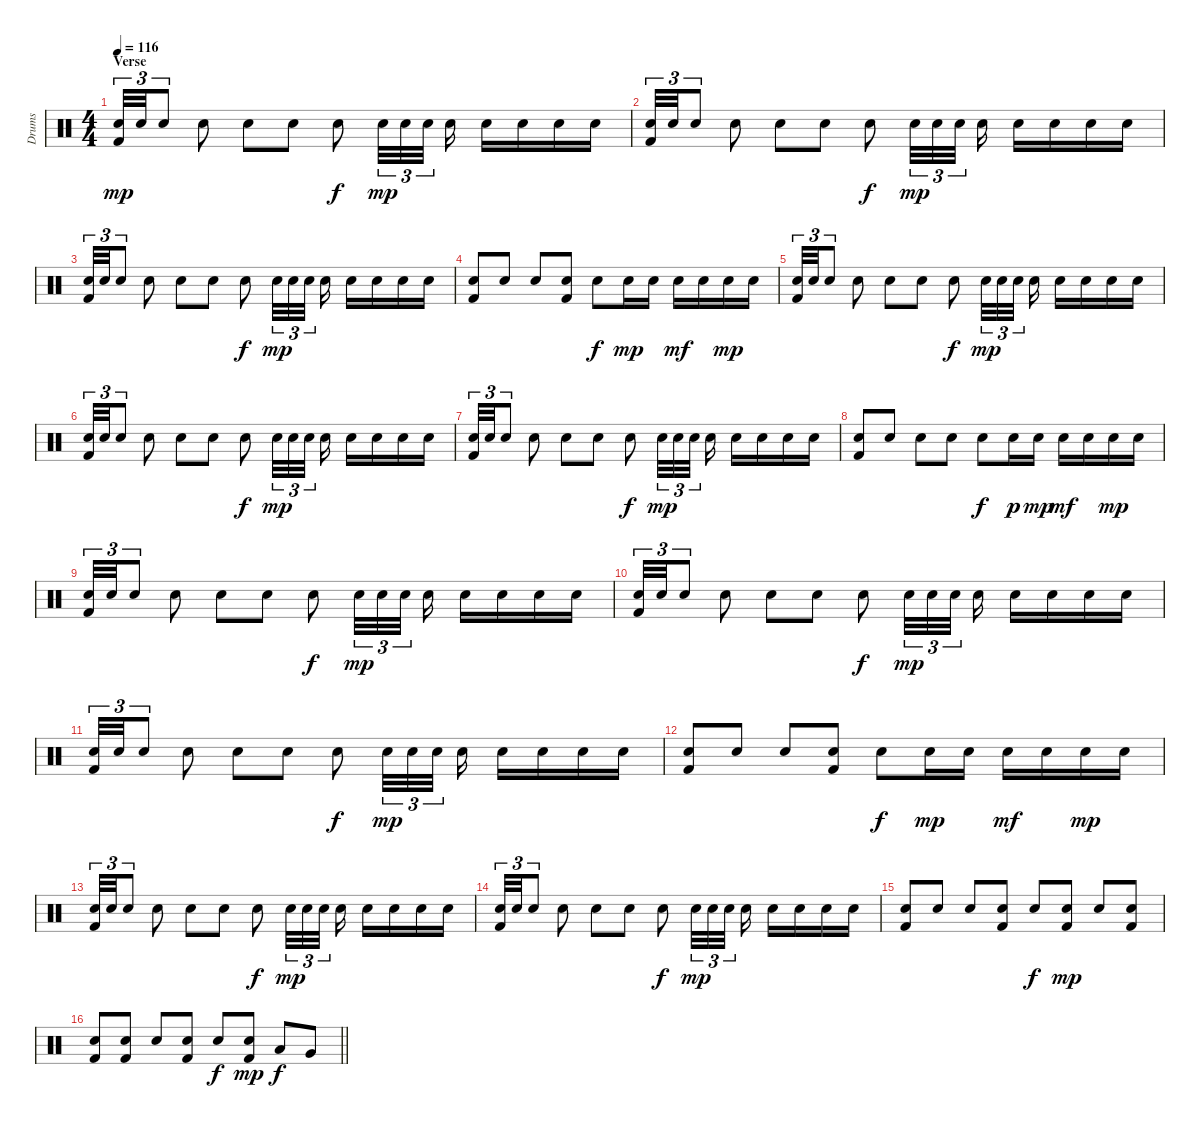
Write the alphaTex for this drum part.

\track ("Drums" "Drums") {instrument percussion}
\staff {score}
\articulation defaults
\ts (4 4)
\section ("" "Verse")
\tempo 116
\clef neutral
\ks c
("Kick (hit) 2" "Snare (hit) 2").32{tu (3 2) dy mp} "Snare (hit) 2".32{tu (3 2)} "Snare (hit) 2".8{tu (3 2)} "Snare (hit) 2".8 "Snare (hit) 2".8 "Snare (hit) 2".8 "Snare (hit) 2".8{dy f} "Snare (hit) 2".32{tu (3 2) dy mp} "Snare (hit) 2".32{tu (3 2)} "Snare (hit) 2".32{tu (3 2)} "Snare (hit) 2".16 "Snare (hit) 2".16 "Snare (hit) 2".16 "Snare (hit) 2".16 "Snare (hit) 2".16 |
("Kick (hit) 2" "Snare (hit) 2").32{tu (3 2)} "Snare (hit) 2".32{tu (3 2)} "Snare (hit) 2".8{tu (3 2)} "Snare (hit) 2".8 "Snare (hit) 2".8 "Snare (hit) 2".8 "Snare (hit) 2".8{dy f} "Snare (hit) 2".32{tu (3 2) dy mp} "Snare (hit) 2".32{tu (3 2)} "Snare (hit) 2".32{tu (3 2)} "Snare (hit) 2".16 "Snare (hit) 2".16 "Snare (hit) 2".16 "Snare (hit) 2".16 "Snare (hit) 2".16 |
("Kick (hit) 2" "Snare (hit) 2").32{tu (3 2)} "Snare (hit) 2".32{tu (3 2)} "Snare (hit) 2".8{tu (3 2)} "Snare (hit) 2".8 "Snare (hit) 2".8 "Snare (hit) 2".8 "Snare (hit) 2".8{dy f} "Snare (hit) 2".32{tu (3 2) dy mp} "Snare (hit) 2".32{tu (3 2)} "Snare (hit) 2".32{tu (3 2)} "Snare (hit) 2".16 "Snare (hit) 2".16 "Snare (hit) 2".16 "Snare (hit) 2".16 "Snare (hit) 2".16 |
("Kick (hit) 2" "Snare (hit) 2").8 "Snare (hit) 2".8 "Snare (hit) 2".8 ("Kick (hit) 2" "Snare (hit) 2").8 "Snare (hit) 2".8{dy f} "Snare (hit) 2".16{dy mp} "Snare (hit) 2".16 "Snare (hit) 2".16{dy mf} "Snare (hit) 2".16 "Snare (hit) 2".16{dy mp} "Snare (hit) 2".16 |
("Kick (hit) 2" "Snare (hit) 2").32{tu (3 2)} "Snare (hit) 2".32{tu (3 2)} "Snare (hit) 2".8{tu (3 2)} "Snare (hit) 2".8 "Snare (hit) 2".8 "Snare (hit) 2".8 "Snare (hit) 2".8{dy f} "Snare (hit) 2".32{tu (3 2) dy mp} "Snare (hit) 2".32{tu (3 2)} "Snare (hit) 2".32{tu (3 2)} "Snare (hit) 2".16 "Snare (hit) 2".16 "Snare (hit) 2".16 "Snare (hit) 2".16 "Snare (hit) 2".16 |
("Kick (hit) 2" "Snare (hit) 2").32{tu (3 2)} "Snare (hit) 2".32{tu (3 2)} "Snare (hit) 2".8{tu (3 2)} "Snare (hit) 2".8 "Snare (hit) 2".8 "Snare (hit) 2".8 "Snare (hit) 2".8{dy f} "Snare (hit) 2".32{tu (3 2) dy mp} "Snare (hit) 2".32{tu (3 2)} "Snare (hit) 2".32{tu (3 2)} "Snare (hit) 2".16 "Snare (hit) 2".16 "Snare (hit) 2".16 "Snare (hit) 2".16 "Snare (hit) 2".16 |
("Kick (hit) 2" "Snare (hit) 2").32{tu (3 2)} "Snare (hit) 2".32{tu (3 2)} "Snare (hit) 2".8{tu (3 2)} "Snare (hit) 2".8 "Snare (hit) 2".8 "Snare (hit) 2".8 "Snare (hit) 2".8{dy f} "Snare (hit) 2".32{tu (3 2) dy mp} "Snare (hit) 2".32{tu (3 2)} "Snare (hit) 2".32{tu (3 2)} "Snare (hit) 2".16 "Snare (hit) 2".16 "Snare (hit) 2".16 "Snare (hit) 2".16 "Snare (hit) 2".16 |
("Kick (hit) 2" "Snare (hit) 2").8 "Snare (hit) 2".8 "Snare (hit) 2".8 "Snare (hit) 2".8 "Snare (hit) 2".8{dy f} "Snare (hit) 2".16{dy p} "Snare (hit) 2".16{dy mp} "Snare (hit) 2".16{dy mf} "Snare (hit) 2".16 "Snare (hit) 2".16{dy mp} "Snare (hit) 2".16 |
("Kick (hit) 2" "Snare (hit) 2").32{tu (3 2)} "Snare (hit) 2".32{tu (3 2)} "Snare (hit) 2".8{tu (3 2)} "Snare (hit) 2".8 "Snare (hit) 2".8 "Snare (hit) 2".8 "Snare (hit) 2".8{dy f} "Snare (hit) 2".32{tu (3 2) dy mp} "Snare (hit) 2".32{tu (3 2)} "Snare (hit) 2".32{tu (3 2)} "Snare (hit) 2".16 "Snare (hit) 2".16 "Snare (hit) 2".16 "Snare (hit) 2".16 "Snare (hit) 2".16 |
("Kick (hit) 2" "Snare (hit) 2").32{tu (3 2)} "Snare (hit) 2".32{tu (3 2)} "Snare (hit) 2".8{tu (3 2)} "Snare (hit) 2".8 "Snare (hit) 2".8 "Snare (hit) 2".8 "Snare (hit) 2".8{dy f} "Snare (hit) 2".32{tu (3 2) dy mp} "Snare (hit) 2".32{tu (3 2)} "Snare (hit) 2".32{tu (3 2)} "Snare (hit) 2".16 "Snare (hit) 2".16 "Snare (hit) 2".16 "Snare (hit) 2".16 "Snare (hit) 2".16 |
("Kick (hit) 2" "Snare (hit) 2").32{tu (3 2)} "Snare (hit) 2".32{tu (3 2)} "Snare (hit) 2".8{tu (3 2)} "Snare (hit) 2".8 "Snare (hit) 2".8 "Snare (hit) 2".8 "Snare (hit) 2".8{dy f} "Snare (hit) 2".32{tu (3 2) dy mp} "Snare (hit) 2".32{tu (3 2)} "Snare (hit) 2".32{tu (3 2)} "Snare (hit) 2".16 "Snare (hit) 2".16 "Snare (hit) 2".16 "Snare (hit) 2".16 "Snare (hit) 2".16 |
("Kick (hit) 2" "Snare (hit) 2").8 "Snare (hit) 2".8 "Snare (hit) 2".8 ("Kick (hit) 2" "Snare (hit) 2").8 "Snare (hit) 2".8{dy f} "Snare (hit) 2".16{dy mp} "Snare (hit) 2".16 "Snare (hit) 2".16{dy mf} "Snare (hit) 2".16 "Snare (hit) 2".16{dy mp} "Snare (hit) 2".16 |
("Kick (hit) 2" "Snare (hit) 2").32{tu (3 2)} "Snare (hit) 2".32{tu (3 2)} "Snare (hit) 2".8{tu (3 2)} "Snare (hit) 2".8 "Snare (hit) 2".8 "Snare (hit) 2".8 "Snare (hit) 2".8{dy f} "Snare (hit) 2".32{tu (3 2) dy mp} "Snare (hit) 2".32{tu (3 2)} "Snare (hit) 2".32{tu (3 2)} "Snare (hit) 2".16 "Snare (hit) 2".16 "Snare (hit) 2".16 "Snare (hit) 2".16 "Snare (hit) 2".16 |
("Kick (hit) 2" "Snare (hit) 2").32{tu (3 2)} "Snare (hit) 2".32{tu (3 2)} "Snare (hit) 2".8{tu (3 2)} "Snare (hit) 2".8 "Snare (hit) 2".8 "Snare (hit) 2".8 "Snare (hit) 2".8{dy f} "Snare (hit) 2".32{tu (3 2) dy mp} "Snare (hit) 2".32{tu (3 2)} "Snare (hit) 2".32{tu (3 2)} "Snare (hit) 2".16 "Snare (hit) 2".16 "Snare (hit) 2".16 "Snare (hit) 2".16 "Snare (hit) 2".16 |
("Kick (hit) 2" "Snare (hit) 2").8 "Snare (hit) 2".8 "Snare (hit) 2".8 ("Kick (hit) 2" "Snare (hit) 2").8 "Snare (hit) 2".8{dy f} ("Kick (hit) 2" "Snare (hit) 2").8{dy mp} "Snare (hit) 2".8 ("Kick (hit) 2" "Snare (hit) 2").8 |
\barLineRight lightlight
("Kick (hit) 2" "Snare (hit) 2").8 ("Kick (hit) 2" "Snare (hit) 2").8 "Snare (hit) 2".8 ("Kick (hit) 2" "Snare (hit) 2").8 "Snare (hit) 2".8{dy f} ("Kick (hit) 2" "Snare (hit) 2").8{dy mp} "Low Tom (hit)".8{dy f} "Very Low Tom (hit)".8
